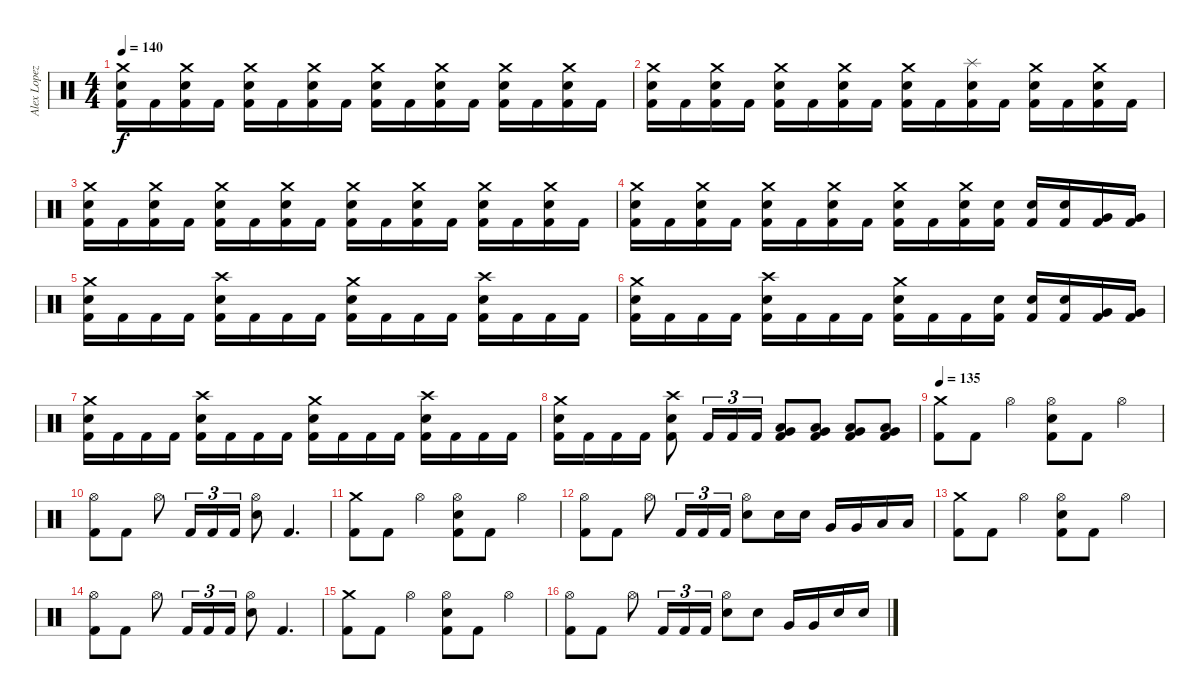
\track ("Alex Lopez" "Alex Lopez") {instrument percussion}
\staff {score}
\articulation defaults
\ts (4 4)
\tempo 140
\clef neutral
\ks c
("Crash medium (hit)" "Electric Snare (hit)" "Kick (hit) 2").16{dy f} "Kick (hit) 2".16 ("Crash medium (hit)" "Electric Snare (hit)" "Kick (hit) 2").16 "Kick (hit) 2".16 ("Crash medium (hit)" "Electric Snare (hit)" "Kick (hit) 2").16 "Kick (hit) 2".16 ("Crash medium (hit)" "Electric Snare (hit)" "Kick (hit) 2").16 "Kick (hit) 2".16 ("Crash medium (hit)" "Electric Snare (hit)" "Kick (hit) 2").16 "Kick (hit) 2".16 ("Crash medium (hit)" "Electric Snare (hit)" "Kick (hit) 2").16 "Kick (hit) 2".16 ("Crash medium (hit)" "Electric Snare (hit)" "Kick (hit) 2").16 "Kick (hit) 2".16 ("Crash medium (hit)" "Electric Snare (hit)" "Kick (hit) 2").16 "Kick (hit) 2".16 |
("Crash medium (hit)" "Electric Snare (hit)" "Kick (hit) 2").16 "Kick (hit) 2".16 ("Crash medium (hit)" "Electric Snare (hit)" "Kick (hit) 2").16 "Kick (hit) 2".16 ("Crash medium (hit)" "Electric Snare (hit)" "Kick (hit) 2").16 "Kick (hit) 2".16 ("Crash medium (hit)" "Electric Snare (hit)" "Kick (hit) 2").16 "Kick (hit) 2".16 ("Crash medium (hit)" "Electric Snare (hit)" "Kick (hit) 2").16 "Kick (hit) 2".16 ("Splash (hit)" "Electric Snare (hit)" "Kick (hit) 2").16 "Kick (hit) 2".16 ("Crash medium (hit)" "Electric Snare (hit)" "Kick (hit) 2").16 "Kick (hit) 2".16 ("Crash medium (hit)" "Electric Snare (hit)" "Kick (hit) 2").16 "Kick (hit) 2".16 |
("Crash medium (hit)" "Electric Snare (hit)" "Kick (hit) 2").16 "Kick (hit) 2".16 ("Crash medium (hit)" "Electric Snare (hit)" "Kick (hit) 2").16 "Kick (hit) 2".16 ("Crash medium (hit)" "Electric Snare (hit)" "Kick (hit) 2").16 "Kick (hit) 2".16 ("Crash medium (hit)" "Electric Snare (hit)" "Kick (hit) 2").16 "Kick (hit) 2".16 ("Crash medium (hit)" "Electric Snare (hit)" "Kick (hit) 2").16 "Kick (hit) 2".16 ("Crash medium (hit)" "Electric Snare (hit)" "Kick (hit) 2").16 "Kick (hit) 2".16 ("Crash medium (hit)" "Electric Snare (hit)" "Kick (hit) 2").16 "Kick (hit) 2".16 ("Crash medium (hit)" "Electric Snare (hit)" "Kick (hit) 2").16 "Kick (hit) 2".16 |
("Crash medium (hit)" "Electric Snare (hit)" "Kick (hit) 2").16 "Kick (hit) 2".16 ("Crash medium (hit)" "Electric Snare (hit)" "Kick (hit) 2").16 "Kick (hit) 2".16 ("Crash medium (hit)" "Electric Snare (hit)" "Kick (hit) 2").16 "Kick (hit) 2".16 ("Crash medium (hit)" "Electric Snare (hit)" "Kick (hit) 2").16 "Kick (hit) 2".16 ("Crash medium (hit)" "Electric Snare (hit)" "Kick (hit) 2").16 "Kick (hit) 2".16 ("Crash medium (hit)" "Electric Snare (hit)" "Kick (hit) 2").16 ("Electric Snare (hit)" "Kick (hit) 2").16 ("Electric Snare (hit)" "Kick (hit) 2").16 ("Electric Snare (hit)" "Kick (hit) 2").16 ("Very Low Tom (hit)" "Kick (hit) 2").16 ("Very Low Tom (hit)" "Kick (hit) 2").16 |
("Crash medium (hit)" "Electric Snare (hit)" "Kick (hit) 2").16 "Kick (hit) 2".16 "Kick (hit) 2".16 "Kick (hit) 2".16 ("Crash high (hit)" "Electric Snare (hit)" "Kick (hit) 2").16 "Kick (hit) 2".16 "Kick (hit) 2".16 "Kick (hit) 2".16 ("Crash medium (hit)" "Electric Snare (hit)" "Kick (hit) 2").16 "Kick (hit) 2".16 "Kick (hit) 2".16 "Kick (hit) 2".16 ("Crash high (hit)" "Electric Snare (hit)" "Kick (hit) 2").16 "Kick (hit) 2".16 "Kick (hit) 2".16 "Kick (hit) 2".16 |
("Crash medium (hit)" "Electric Snare (hit)" "Kick (hit) 2").16 "Kick (hit) 2".16 "Kick (hit) 2".16 "Kick (hit) 2".16 ("Crash high (hit)" "Electric Snare (hit)" "Kick (hit) 2").16 "Kick (hit) 2".16 "Kick (hit) 2".16 "Kick (hit) 2".16 ("Crash medium (hit)" "Electric Snare (hit)" "Kick (hit) 2").16 "Kick (hit) 2".16 "Kick (hit) 2".16 ("Electric Snare (hit)" "Kick (hit) 2").16 ("Electric Snare (hit)" "Kick (hit) 2").16 ("Electric Snare (hit)" "Kick (hit) 2").16 ("Very Low Tom (hit)" "Kick (hit) 2").16 ("Very Low Tom (hit)" "Kick (hit) 2").16 |
("Crash medium (hit)" "Electric Snare (hit)" "Kick (hit) 2").16 "Kick (hit) 2".16 "Kick (hit) 2".16 "Kick (hit) 2".16 ("Crash high (hit)" "Electric Snare (hit)" "Kick (hit) 2").16 "Kick (hit) 2".16 "Kick (hit) 2".16 "Kick (hit) 2".16 ("Crash medium (hit)" "Electric Snare (hit)" "Kick (hit) 2").16 "Kick (hit) 2".16 "Kick (hit) 2".16 "Kick (hit) 2".16 ("Crash high (hit)" "Electric Snare (hit)" "Kick (hit) 2").16 "Kick (hit) 2".16 "Kick (hit) 2".16 "Kick (hit) 2".16 |
("Crash medium (hit)" "Electric Snare (hit)" "Kick (hit) 2").16 "Kick (hit) 2".16 "Kick (hit) 2".16 "Kick (hit) 2".16 ("Crash high (hit)" "Electric Snare (hit)" "Kick (hit) 2").8 "Kick (hit) 2".16{tu (3 2)} "Kick (hit) 2".16{tu (3 2)} "Kick (hit) 2".16{tu (3 2)} ("Low Floor Tom (hit)" "Very Low Tom (hit)" "Kick (hit) 2").8 ("Low Floor Tom (hit)" "Very Low Tom (hit)" "Kick (hit) 2").8 ("Low Floor Tom (hit)" "Very Low Tom (hit)" "Kick (hit) 2").8 ("Low Floor Tom (hit)" "Very Low Tom (hit)" "Kick (hit) 2").8 |
\tempo 135
("Crash medium (hit)" "Kick (hit) 2").8 "Kick (hit) 2".8 "Hi-Hat (open)".4 ("Hi-Hat (open)" "Electric Snare (hit)" "Kick (hit) 2").8 "Kick (hit) 2".8 "Hi-Hat (open)".4 |
("Hi-Hat (open)" "Kick (hit) 2").8 "Kick (hit) 2".8 "Hi-Hat (open)".8 "Kick (hit) 2".16{tu (3 2)} "Kick (hit) 2".16{tu (3 2)} "Kick (hit) 2".16{tu (3 2)} ("Hi-Hat (open)" "Electric Snare (hit)").8 "Kick (hit) 2".4{d} |
("Crash medium (hit)" "Kick (hit) 2").8 "Kick (hit) 2".8 "Hi-Hat (open)".4 ("Hi-Hat (open)" "Electric Snare (hit)" "Kick (hit) 2").8 "Kick (hit) 2".8 "Hi-Hat (open)".4 |
("Hi-Hat (open)" "Kick (hit) 2").8 "Kick (hit) 2".8 "Hi-Hat (open)".8 "Kick (hit) 2".16{tu (3 2)} "Kick (hit) 2".16{tu (3 2)} "Kick (hit) 2".16{tu (3 2)} ("Hi-Hat (open)" "Electric Snare (hit)").8 "Electric Snare (hit)".16 "Electric Snare (hit)".16 "Very Low Tom (hit)".16 "Very Low Tom (hit)".16 "Low Floor Tom (hit)".16 "Low Floor Tom (hit)".16 |
("Crash medium (hit)" "Kick (hit) 2").8 "Kick (hit) 2".8 "Hi-Hat (open)".4 ("Hi-Hat (open)" "Electric Snare (hit)" "Kick (hit) 2").8 "Kick (hit) 2".8 "Hi-Hat (open)".4 |
("Hi-Hat (open)" "Kick (hit) 2").8 "Kick (hit) 2".8 "Hi-Hat (open)".8 "Kick (hit) 2".16{tu (3 2)} "Kick (hit) 2".16{tu (3 2)} "Kick (hit) 2".16{tu (3 2)} ("Hi-Hat (open)" "Electric Snare (hit)").8 "Kick (hit) 2".4{d} |
("Crash medium (hit)" "Kick (hit) 2").8 "Kick (hit) 2".8 "Hi-Hat (open)".4 ("Hi-Hat (open)" "Electric Snare (hit)" "Kick (hit) 2").8 "Kick (hit) 2".8 "Hi-Hat (open)".4 |
("Hi-Hat (open)" "Kick (hit) 2").8 "Kick (hit) 2".8 "Hi-Hat (open)".8 "Kick (hit) 2".16{tu (3 2)} "Kick (hit) 2".16{tu (3 2)} "Kick (hit) 2".16{tu (3 2)} ("Hi-Hat (open)" "Electric Snare (hit)").8 "Electric Snare (hit)".8 "Very Low Tom (hit)".16 "Very Low Tom (hit)".16 "Electric Snare (hit)".16 "Electric Snare (hit)".16
